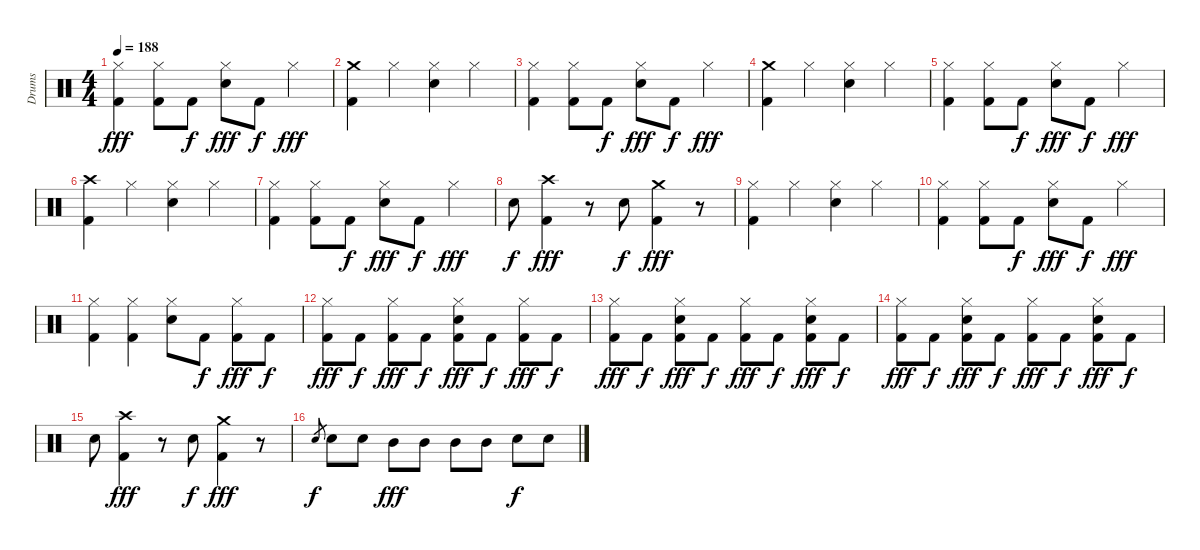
\track ("Drums" "Drums") {instrument percussion}
\staff {score}
\articulation defaults
\ts (4 4)
\tempo 188
\clef neutral
\ks c
("Hi-Hat (closed)" "Kick (hit) 2").4{dy fff} ("Hi-Hat (closed)" "Kick (hit) 2").8 "Kick (hit) 2".8{dy f} ("Hi-Hat (closed)" "Snare (hit) 2").8{dy fff} "Kick (hit) 2".8{dy f} "Hi-Hat (closed)".4{dy fff} |
("Crash medium (hit)" "Kick (hit) 2").4 "Hi-Hat (closed)".4 ("Hi-Hat (closed)" "Snare (hit) 2").4 "Hi-Hat (closed)".4 |
("Hi-Hat (closed)" "Kick (hit) 2").4 ("Hi-Hat (closed)" "Kick (hit) 2").8 "Kick (hit) 2".8{dy f} ("Hi-Hat (closed)" "Snare (hit) 2").8{dy fff} "Kick (hit) 2".8{dy f} "Hi-Hat (closed)".4{dy fff} |
("Crash medium (hit)" "Kick (hit) 2").4 "Hi-Hat (closed)".4 ("Hi-Hat (closed)" "Snare (hit) 2").4 "Hi-Hat (closed)".4 |
("Hi-Hat (closed)" "Kick (hit) 2").4 ("Hi-Hat (closed)" "Kick (hit) 2").8 "Kick (hit) 2".8{dy f} ("Hi-Hat (closed)" "Snare (hit) 2").8{dy fff} "Kick (hit) 2".8{dy f} "Hi-Hat (closed)".4{dy fff} |
("Crash high (hit)" "Kick (hit) 2").4 "Hi-Hat (closed)".4 ("Hi-Hat (closed)" "Snare (hit) 2").4 "Hi-Hat (closed)".4 |
("Hi-Hat (closed)" "Kick (hit) 2").4 ("Hi-Hat (closed)" "Kick (hit) 2").8 "Kick (hit) 2".8{dy f} ("Hi-Hat (closed)" "Snare (hit) 2").8{dy fff} "Kick (hit) 2".8{dy f} "Hi-Hat (closed)".4{dy fff} |
"Snare (hit) 2".8{dy f} ("Crash high (hit)" "Kick (hit) 2").4{dy fff} r.8 "Snare (hit) 2".8{dy f} ("Crash medium (hit)" "Kick (hit) 2").4{dy fff} r.8 |
("Hi-Hat (closed)" "Kick (hit) 2").4 "Hi-Hat (closed)".4 ("Hi-Hat (closed)" "Snare (hit) 2").4 "Hi-Hat (closed)".4 |
("Hi-Hat (closed)" "Kick (hit) 2").4 ("Hi-Hat (closed)" "Kick (hit) 2").8 "Kick (hit) 2".8{dy f} ("Hi-Hat (closed)" "Snare (hit) 2").8{dy fff} "Kick (hit) 2".8{dy f} "Hi-Hat (closed)".4{dy fff} |
("Hi-Hat (closed)" "Kick (hit) 2").4 ("Hi-Hat (closed)" "Kick (hit) 2").4 ("Hi-Hat (closed)" "Snare (hit) 2").8 "Kick (hit) 2".8{dy f} ("Hi-Hat (closed)" "Kick (hit) 2").8{dy fff} "Kick (hit) 2".8{dy f} |
("Hi-Hat (closed)" "Kick (hit) 2").8{dy fff} "Kick (hit) 2".8{dy f} ("Hi-Hat (closed)" "Kick (hit) 2").8{dy fff} "Kick (hit) 2".8{dy f} ("Hi-Hat (closed)" "Snare (hit) 2" "Kick (hit) 2").8{dy fff} "Kick (hit) 2".8{dy f} ("Hi-Hat (closed)" "Kick (hit) 2").8{dy fff} "Kick (hit) 2".8{dy f} |
("Hi-Hat (closed)" "Kick (hit) 2").8{dy fff} "Kick (hit) 2".8{dy f} ("Hi-Hat (closed)" "Snare (hit) 2" "Kick (hit) 2").8{dy fff} "Kick (hit) 2".8{dy f} ("Hi-Hat (closed)" "Kick (hit) 2").8{dy fff} "Kick (hit) 2".8{dy f} ("Hi-Hat (closed)" "Snare (hit) 2" "Kick (hit) 2").8{dy fff} "Kick (hit) 2".8{dy f} |
("Hi-Hat (closed)" "Kick (hit) 2").8{dy fff} "Kick (hit) 2".8{dy f} ("Hi-Hat (closed)" "Snare (hit) 2" "Kick (hit) 2").8{dy fff} "Kick (hit) 2".8{dy f} ("Hi-Hat (closed)" "Kick (hit) 2").8{dy fff} "Kick (hit) 2".8{dy f} ("Hi-Hat (closed)" "Snare (hit) 2" "Kick (hit) 2").8{dy fff} "Kick (hit) 2".8{dy f} |
"Snare (hit) 2".8 ("Crash high (hit)" "Kick (hit) 2").4{dy fff} r.8 "Snare (hit) 2".8{dy f} ("Crash medium (hit)" "Kick (hit) 2").4{dy fff} r.8 |
"Snare (hit) 2".8{gr dy f} "Snare (hit) 2".8 "Snare (hit) 2".8 "Mid Tom (hit)".8{dy fff} "Mid Tom (hit)".8 "Mid Tom (hit)".8 "Mid Tom (hit)".8 "Snare (hit) 2".8{dy f} "Snare (hit) 2".8
